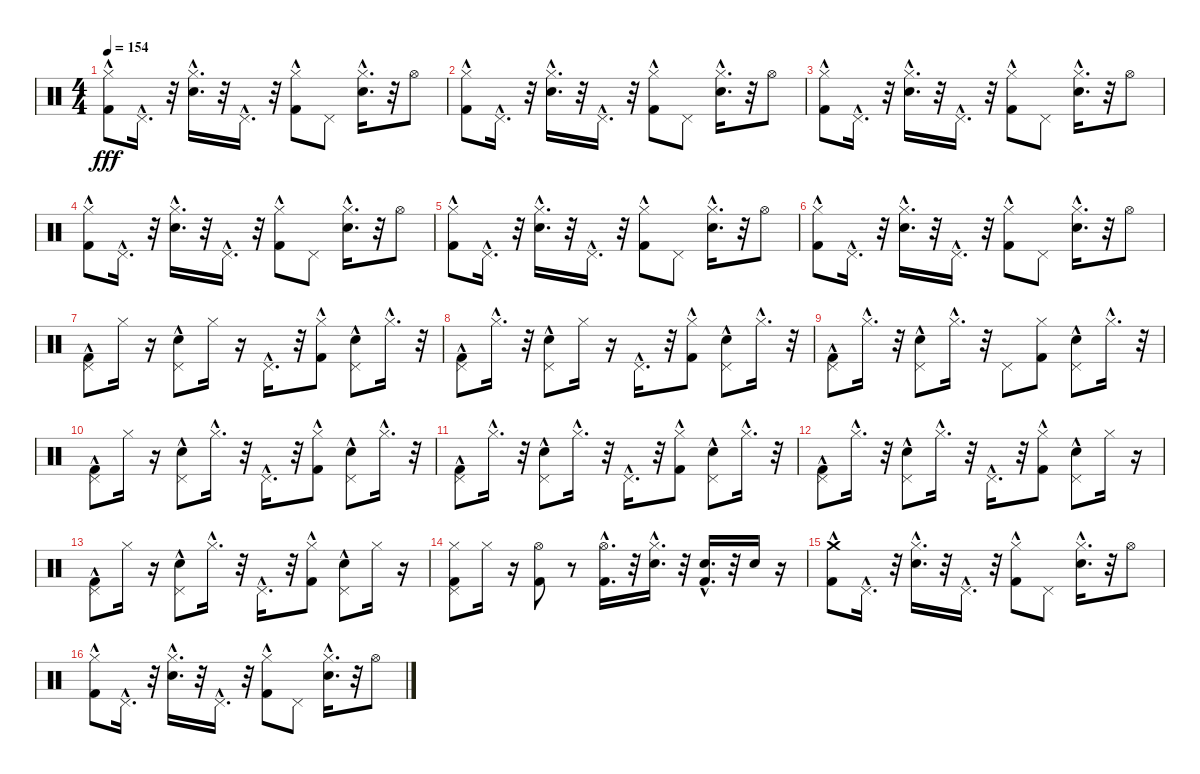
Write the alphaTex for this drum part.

\track "" {instrument percussion}
\staff {score}
\articulation defaults
\ts (4 4)
\tempo 154
\clef neutral
\ks c
("Kick (hit) 2" "Hi-Hat (closed)"{hac}).8{dy fff} "Pedal Hi-Hat (hit)"{hac}.16{d} r.32 ("Electric Snare (hit)"{hac} "Hi-Hat (closed)").16{d} r.32 "Pedal Hi-Hat (hit)"{hac}.16{d} r.32 ("Hi-Hat (closed)"{hac} "Kick (hit) 2").8 "Pedal Hi-Hat (hit)".8 ("Electric Snare (hit)"{hac} "Hi-Hat (closed)").16{d} r.32 "Hi-Hat (open)".8 |
("Kick (hit) 2" "Hi-Hat (closed)"{hac}).8 "Pedal Hi-Hat (hit)"{hac}.16{d} r.32 ("Electric Snare (hit)"{hac} "Hi-Hat (closed)").16{d} r.32 "Pedal Hi-Hat (hit)"{hac}.16{d} r.32 ("Hi-Hat (closed)"{hac} "Kick (hit) 2").8 "Pedal Hi-Hat (hit)".8 ("Electric Snare (hit)"{hac} "Hi-Hat (closed)").16{d} r.32 "Hi-Hat (open)".8 |
("Kick (hit) 2" "Hi-Hat (closed)"{hac}).8 "Pedal Hi-Hat (hit)"{hac}.16{d} r.32 ("Electric Snare (hit)"{hac} "Hi-Hat (closed)").16{d} r.32 "Pedal Hi-Hat (hit)"{hac}.16{d} r.32 ("Hi-Hat (closed)"{hac} "Kick (hit) 2").8 "Pedal Hi-Hat (hit)".8 ("Electric Snare (hit)"{hac} "Hi-Hat (closed)").16{d} r.32 "Hi-Hat (open)".8 |
("Kick (hit) 2" "Hi-Hat (closed)"{hac}).8 "Pedal Hi-Hat (hit)"{hac}.16{d} r.32 ("Electric Snare (hit)"{hac} "Hi-Hat (closed)").16{d} r.32 "Pedal Hi-Hat (hit)"{hac}.16{d} r.32 ("Hi-Hat (closed)"{hac} "Kick (hit) 2").8 "Pedal Hi-Hat (hit)".8 ("Electric Snare (hit)"{hac} "Hi-Hat (closed)").16{d} r.32 "Hi-Hat (open)".8 |
("Kick (hit) 2" "Hi-Hat (closed)"{hac}).8 "Pedal Hi-Hat (hit)"{hac}.16{d} r.32 ("Electric Snare (hit)"{hac} "Hi-Hat (closed)").16{d} r.32 "Pedal Hi-Hat (hit)"{hac}.16{d} r.32 ("Hi-Hat (closed)"{hac} "Kick (hit) 2").8 "Pedal Hi-Hat (hit)".8 ("Electric Snare (hit)"{hac} "Hi-Hat (closed)").16{d} r.32 "Hi-Hat (open)".8 |
("Kick (hit) 2" "Hi-Hat (closed)"{hac}).8 "Pedal Hi-Hat (hit)"{hac}.16{d} r.32 ("Electric Snare (hit)"{hac} "Hi-Hat (closed)").16{d} r.32 "Pedal Hi-Hat (hit)"{hac}.16{d} r.32 ("Hi-Hat (closed)"{hac} "Kick (hit) 2").8 "Pedal Hi-Hat (hit)".8 ("Electric Snare (hit)"{hac} "Hi-Hat (closed)").16{d} r.32 "Hi-Hat (open)".8 |
("Kick (hit) 2"{hac} "Pedal Hi-Hat (hit)").8 "Hi-Hat (closed)".16 r.16 ("Pedal Hi-Hat (hit)"{hac} "Electric Snare (hit)").8 "Hi-Hat (closed)".16 r.16 "Pedal Hi-Hat (hit)"{hac}.16{d} r.32 ("Hi-Hat (closed)" "Kick (hit) 2"{hac}).8 ("Pedal Hi-Hat (hit)"{hac} "Electric Snare (hit)"{hac}).8 "Hi-Hat (closed)"{hac}.16{d} r.32 |
("Pedal Hi-Hat (hit)"{hac} "Kick (hit) 2").8 "Hi-Hat (closed)"{hac}.16{d} r.32 ("Pedal Hi-Hat (hit)"{hac} "Electric Snare (hit)").8 "Hi-Hat (closed)".16 r.16 "Pedal Hi-Hat (hit)"{hac}.16{d} r.32 ("Hi-Hat (closed)"{hac} "Kick (hit) 2").8 ("Pedal Hi-Hat (hit)"{hac} "Electric Snare (hit)").8 "Hi-Hat (closed)"{hac}.16{d} r.32 |
("Pedal Hi-Hat (hit)" "Kick (hit) 2"{hac}).8 "Hi-Hat (closed)"{hac}.16{d} r.32 ("Pedal Hi-Hat (hit)"{hac} "Electric Snare (hit)"{hac}).8 "Hi-Hat (closed)"{hac}.16{d} r.32 "Pedal Hi-Hat (hit)".8 ("Kick (hit) 2" "Hi-Hat (closed)").8 ("Pedal Hi-Hat (hit)"{hac} "Electric Snare (hit)").8 "Hi-Hat (closed)"{hac}.16{d} r.32 |
("Pedal Hi-Hat (hit)"{hac} "Kick (hit) 2"{hac}).8 "Hi-Hat (closed)".16 r.16 ("Pedal Hi-Hat (hit)"{hac} "Electric Snare (hit)"{hac}).8 "Hi-Hat (closed)"{hac}.16{d} r.32 "Pedal Hi-Hat (hit)"{hac}.16{d} r.32 ("Hi-Hat (closed)"{hac} "Kick (hit) 2"{hac}).8 ("Pedal Hi-Hat (hit)"{hac} "Electric Snare (hit)").8 "Hi-Hat (closed)"{hac}.16{d} r.32 |
("Pedal Hi-Hat (hit)"{hac} "Kick (hit) 2"{hac}).8 "Hi-Hat (closed)"{hac}.16{d} r.32 ("Pedal Hi-Hat (hit)"{hac} "Electric Snare (hit)").8 "Hi-Hat (closed)"{hac}.16{d} r.32 "Pedal Hi-Hat (hit)"{hac}.16{d} r.32 ("Hi-Hat (closed)"{hac} "Kick (hit) 2"{hac}).8 ("Pedal Hi-Hat (hit)"{hac} "Electric Snare (hit)").8 "Hi-Hat (closed)"{hac}.16{d} r.32 |
("Pedal Hi-Hat (hit)"{hac} "Kick (hit) 2").8 "Hi-Hat (closed)"{hac}.16{d} r.32 ("Pedal Hi-Hat (hit)"{hac} "Electric Snare (hit)"{hac}).8 "Hi-Hat (closed)"{hac}.16{d} r.32 "Pedal Hi-Hat (hit)"{hac}.16{d} r.32 ("Hi-Hat (closed)"{hac} "Kick (hit) 2").8 ("Pedal Hi-Hat (hit)"{hac} "Electric Snare (hit)").8 "Hi-Hat (closed)".16 r.16 |
("Kick (hit) 2" "Pedal Hi-Hat (hit)"{hac}).8 "Hi-Hat (closed)".16 r.16 ("Pedal Hi-Hat (hit)"{hac} "Electric Snare (hit)"{hac}).8 "Hi-Hat (closed)"{hac}.16{d} r.32 "Pedal Hi-Hat (hit)"{hac}.16{d} r.32 ("Kick (hit) 2" "Hi-Hat (closed)"{hac}).8 ("Electric Snare (hit)"{hac} "Pedal Hi-Hat (hit)"{hac}).8 "Hi-Hat (closed)".16 r.16 |
("Hi-Hat (closed)" "Kick (hit) 2" "Pedal Hi-Hat (hit)").8 "Hi-Hat (closed)".16 r.16 ("Hi-Hat (open)" "Kick (hit) 2").8 r.8 ("Hi-Hat (open)"{hac} "Kick (hit) 2"{hac}).16{d} r.32 ("Electric Snare (hit)"{hac} "Hi-Hat (closed)").16{d} r.32 ("Kick (hit) 2"{hac} "Electric Snare (hit)"{hac}).16{d} r.32 "Electric Snare (hit)".16 r.16 |
("Kick (hit) 2" "Crash medium (hit)"{hac}).8 "Pedal Hi-Hat (hit)"{hac}.16{d} r.32 ("Electric Snare (hit)"{hac} "Hi-Hat (closed)").16{d} r.32 "Pedal Hi-Hat (hit)"{hac}.16{d} r.32 ("Hi-Hat (closed)"{hac} "Kick (hit) 2").8 "Pedal Hi-Hat (hit)".8 ("Electric Snare (hit)"{hac} "Hi-Hat (closed)").16{d} r.32 "Hi-Hat (open)".8 |
("Kick (hit) 2" "Hi-Hat (closed)"{hac}).8 "Pedal Hi-Hat (hit)"{hac}.16{d} r.32 ("Electric Snare (hit)"{hac} "Hi-Hat (closed)").16{d} r.32 "Pedal Hi-Hat (hit)"{hac}.16{d} r.32 ("Hi-Hat (closed)"{hac} "Kick (hit) 2").8 "Pedal Hi-Hat (hit)".8 ("Electric Snare (hit)"{hac} "Hi-Hat (closed)").16{d} r.32 "Hi-Hat (open)".8
